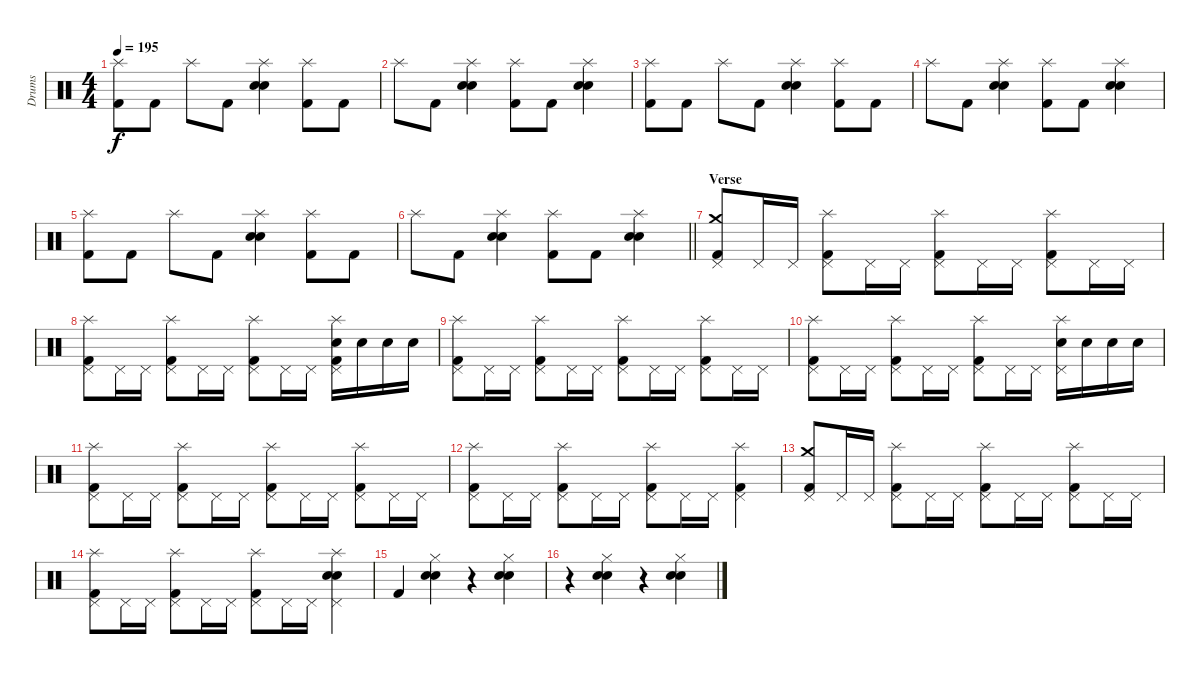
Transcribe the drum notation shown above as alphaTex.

\track ("Drums" "Drums") {instrument percussion}
\staff {score}
\articulation defaults
\ts (4 4)
\tempo 195
\clef neutral
\ks c
("Splash (hit)" "Kick (hit) 2").8{dy f} "Kick (hit) 2".8 "Splash (hit)".8 "Kick (hit) 2".8 ("Splash (hit)" "Electric Snare (hit)" "Snare (hit) 2").4 ("Splash (hit)" "Kick (hit) 2").8 "Kick (hit) 2".8 |
"Splash (hit)".8 "Kick (hit) 2".8 ("Splash (hit)" "Electric Snare (hit)" "Snare (hit) 2").4 ("Splash (hit)" "Kick (hit) 2").8 "Kick (hit) 2".8 ("Splash (hit)" "Electric Snare (hit)" "Snare (hit) 2").4 |
("Splash (hit)" "Kick (hit) 2").8 "Kick (hit) 2".8 "Splash (hit)".8 "Kick (hit) 2".8 ("Splash (hit)" "Electric Snare (hit)" "Snare (hit) 2").4 ("Splash (hit)" "Kick (hit) 2").8 "Kick (hit) 2".8 |
"Splash (hit)".8 "Kick (hit) 2".8 ("Splash (hit)" "Electric Snare (hit)" "Snare (hit) 2").4 ("Splash (hit)" "Kick (hit) 2").8 "Kick (hit) 2".8 ("Splash (hit)" "Electric Snare (hit)" "Snare (hit) 2").4 |
("Splash (hit)" "Kick (hit) 2").8 "Kick (hit) 2".8 "Splash (hit)".8 "Kick (hit) 2".8 ("Splash (hit)" "Electric Snare (hit)" "Snare (hit) 2").4 ("Splash (hit)" "Kick (hit) 2").8 "Kick (hit) 2".8 |
\barLineRight lightlight "Splash (hit)".8 "Kick (hit) 2".8
("Splash (hit)" "Electric Snare (hit)" "Snare (hit) 2").4 ("Splash (hit)" "Kick (hit) 2").8 "Kick (hit) 2".8 ("Splash (hit)" "Electric Snare (hit)" "Snare (hit) 2").4 |
\section ("" "Verse")
("Crash medium (hit)" "Pedal Hi-Hat (hit)" "Kick (hit) 2").8 "Pedal Hi-Hat (hit)".16 "Pedal Hi-Hat (hit)".16 ("Splash (hit)" "Pedal Hi-Hat (hit)" "Kick (hit) 2").8 "Pedal Hi-Hat (hit)".16 "Pedal Hi-Hat (hit)".16 ("Splash (hit)" "Pedal Hi-Hat (hit)" "Kick (hit) 2").8 "Pedal Hi-Hat (hit)".16 "Pedal Hi-Hat (hit)".16 ("Splash (hit)" "Pedal Hi-Hat (hit)" "Kick (hit) 2").8 "Pedal Hi-Hat (hit)".16 "Pedal Hi-Hat (hit)".16 |
("Splash (hit)" "Pedal Hi-Hat (hit)" "Kick (hit) 2").8 "Pedal Hi-Hat (hit)".16 "Pedal Hi-Hat (hit)".16 ("Splash (hit)" "Pedal Hi-Hat (hit)" "Kick (hit) 2").8 "Pedal Hi-Hat (hit)".16 "Pedal Hi-Hat (hit)".16 ("Splash (hit)" "Pedal Hi-Hat (hit)" "Kick (hit) 2").8 "Pedal Hi-Hat (hit)".16 "Pedal Hi-Hat (hit)".16 ("Splash (hit)" "Pedal Hi-Hat (hit)" "Electric Snare (hit)" "Kick (hit) 2").16 "Electric Snare (hit)".16 "Electric Snare (hit)".16 "Electric Snare (hit)".16 |
("Splash (hit)" "Pedal Hi-Hat (hit)" "Kick (hit) 2").8 "Pedal Hi-Hat (hit)".16 "Pedal Hi-Hat (hit)".16 ("Splash (hit)" "Pedal Hi-Hat (hit)" "Kick (hit) 2").8 "Pedal Hi-Hat (hit)".16 "Pedal Hi-Hat (hit)".16 ("Splash (hit)" "Pedal Hi-Hat (hit)" "Kick (hit) 2").8 "Pedal Hi-Hat (hit)".16 "Pedal Hi-Hat (hit)".16 ("Splash (hit)" "Pedal Hi-Hat (hit)" "Kick (hit) 2").8 "Pedal Hi-Hat (hit)".16 "Pedal Hi-Hat (hit)".16 |
("Splash (hit)" "Pedal Hi-Hat (hit)" "Kick (hit) 2").8 "Pedal Hi-Hat (hit)".16 "Pedal Hi-Hat (hit)".16 ("Splash (hit)" "Pedal Hi-Hat (hit)" "Kick (hit) 2").8 "Pedal Hi-Hat (hit)".16 "Pedal Hi-Hat (hit)".16 ("Splash (hit)" "Pedal Hi-Hat (hit)" "Kick (hit) 2").8 "Pedal Hi-Hat (hit)".16 "Pedal Hi-Hat (hit)".16 ("Splash (hit)" "Pedal Hi-Hat (hit)" "Electric Snare (hit)").16 "Electric Snare (hit)".16 "Electric Snare (hit)".16 "Electric Snare (hit)".16 |
("Splash (hit)" "Pedal Hi-Hat (hit)" "Kick (hit) 2").8 "Pedal Hi-Hat (hit)".16 "Pedal Hi-Hat (hit)".16 ("Splash (hit)" "Pedal Hi-Hat (hit)" "Kick (hit) 2").8 "Pedal Hi-Hat (hit)".16 "Pedal Hi-Hat (hit)".16 ("Splash (hit)" "Pedal Hi-Hat (hit)" "Kick (hit) 2").8 "Pedal Hi-Hat (hit)".16 "Pedal Hi-Hat (hit)".16 ("Splash (hit)" "Pedal Hi-Hat (hit)" "Kick (hit) 2").8 "Pedal Hi-Hat (hit)".16 "Pedal Hi-Hat (hit)".16 |
("Splash (hit)" "Pedal Hi-Hat (hit)" "Kick (hit) 2").8 "Pedal Hi-Hat (hit)".16 "Pedal Hi-Hat (hit)".16 ("Splash (hit)" "Pedal Hi-Hat (hit)" "Kick (hit) 2").8 "Pedal Hi-Hat (hit)".16 "Pedal Hi-Hat (hit)".16 ("Splash (hit)" "Pedal Hi-Hat (hit)" "Kick (hit) 2").8 "Pedal Hi-Hat (hit)".16 "Pedal Hi-Hat (hit)".16 ("Splash (hit)" "Pedal Hi-Hat (hit)" "Kick (hit) 2").4 |
("Crash medium (hit)" "Pedal Hi-Hat (hit)" "Kick (hit) 2").8 "Pedal Hi-Hat (hit)".16 "Pedal Hi-Hat (hit)".16 ("Splash (hit)" "Pedal Hi-Hat (hit)" "Kick (hit) 2").8 "Pedal Hi-Hat (hit)".16 "Pedal Hi-Hat (hit)".16 ("Splash (hit)" "Pedal Hi-Hat (hit)" "Kick (hit) 2").8 "Pedal Hi-Hat (hit)".16 "Pedal Hi-Hat (hit)".16 ("Splash (hit)" "Pedal Hi-Hat (hit)" "Kick (hit) 2").8 "Pedal Hi-Hat (hit)".16 "Pedal Hi-Hat (hit)".16 |
("Splash (hit)" "Pedal Hi-Hat (hit)" "Kick (hit) 2").8 "Pedal Hi-Hat (hit)".16 "Pedal Hi-Hat (hit)".16 ("Splash (hit)" "Pedal Hi-Hat (hit)" "Kick (hit) 2").8 "Pedal Hi-Hat (hit)".16 "Pedal Hi-Hat (hit)".16 ("Splash (hit)" "Pedal Hi-Hat (hit)" "Kick (hit) 2").8 "Pedal Hi-Hat (hit)".16 "Pedal Hi-Hat (hit)".16 ("Splash (hit)" "Pedal Hi-Hat (hit)" "Electric Snare (hit)" "Snare (hit) 2").4 |
"Kick (hit) 2".4 ("Hi-Hat (closed)" "Electric Snare (hit)" "Snare (hit) 2").4 r.4 ("Hi-Hat (closed)" "Electric Snare (hit)" "Snare (hit) 2").4 |
r.4 ("Hi-Hat (closed)" "Electric Snare (hit)" "Snare (hit) 2").4 r.4 ("Hi-Hat (closed)" "Electric Snare (hit)" "Snare (hit) 2").4
